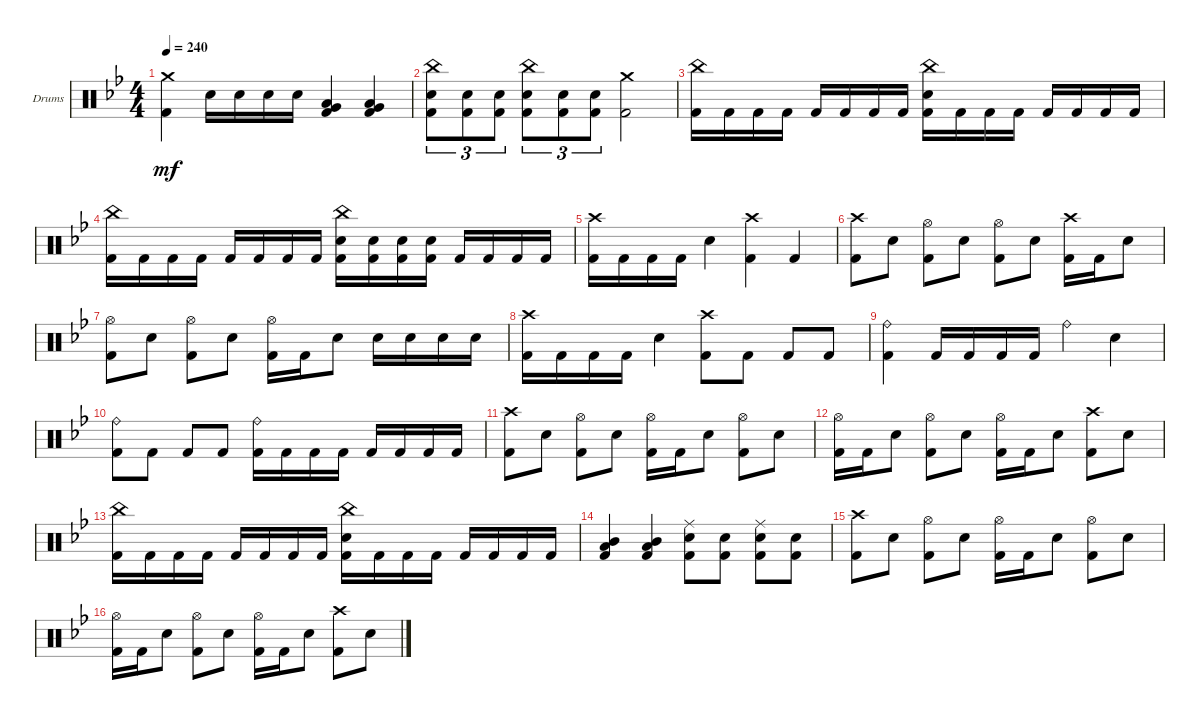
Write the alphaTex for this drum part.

\defaultSystemsLayout 4
\bracketExtendMode groupsimilarinstruments
\firstSystemTrackNameOrientation horizontal
\otherSystemsTrackNameOrientation horizontal
\track ("Drumkit" "Drums") {instrument percussion}
\staff {score}
\articulation defaults
\ts (4 4)
\tempo 240
\clef neutral
\scale
0.333333
\ks bb
("Crash medium (hit)"{acc forcenatural} "Kick (hit) 2"{acc forcenatural}).4{dy mf} "Snare (hit) 2"{acc forcenatural}.16 "Snare (hit) 2"{acc forcenatural}.16 "Snare (hit) 2"{acc forcenatural}.16 "Snare (hit) 2"{acc forcenatural}.16 ("Low Tom (hit)"{acc forcenatural} "Very Low Tom (hit)"{acc forcenatural} "Kick (hit) 2"{acc forcenatural}).4 ("Low Tom (hit)"{acc forcenatural} "Very Low Tom (hit)"{acc forcenatural} "Kick (hit) 2"{acc forcenatural}).4 |
\scale
0.333333 ("Snare (hit) 2"{acc forcenatural} "China (hit)"{acc forcenatural} "Kick (hit) 2"{acc forcenatural}).8{tu (3 2)} ("Snare (hit) 2"{acc forcenatural} "Kick (hit) 2"{acc forcenatural}).8{tu (3 2)} ("Snare (hit) 2"{acc forcenatural} "Kick (hit) 2"{acc forcenatural}).8{tu (3 2)} ("Snare (hit) 2"{acc forcenatural} "China (hit)"{acc forcenatural} "Kick (hit) 2"{acc forcenatural}).8{tu (3 2)} ("Snare (hit) 2"{acc forcenatural} "Kick (hit) 2"{acc forcenatural}).8{tu (3 2)} ("Snare (hit) 2"{acc forcenatural} "Kick (hit) 2"{acc forcenatural}).8{tu (3 2)} ("Crash medium (hit)"{acc forcenatural} "Kick (hit) 2"{acc forcenatural}).2 |
\scale
0.333333 ("Kick (hit) 2"{acc forcenatural} "China (hit)"{acc forcenatural}).16 "Kick (hit) 2"{acc forcenatural}.16 "Kick (hit) 2"{acc forcenatural}.16 "Kick (hit) 2"{acc forcenatural}.16 "Kick (hit) 2"{acc forcenatural}.16 "Kick (hit) 2"{acc forcenatural}.16 "Kick (hit) 2"{acc forcenatural}.16 "Kick (hit) 2"{acc forcenatural}.16 ("Kick (hit) 2"{acc forcenatural} "Snare (hit) 2"{acc forcenatural} "China (hit)"{acc forcenatural}).16 "Kick (hit) 2"{acc forcenatural}.16 "Kick (hit) 2"{acc forcenatural}.16 "Kick (hit) 2"{acc forcenatural}.16 "Kick (hit) 2"{acc forcenatural}.16 "Kick (hit) 2"{acc forcenatural}.16 "Kick (hit) 2"{acc forcenatural}.16 "Kick (hit) 2"{acc forcenatural}.16 |
\scale
0.333333 ("Kick (hit) 2"{acc forcenatural} "China (hit)"{acc forcenatural}).16 "Kick (hit) 2"{acc forcenatural}.16 "Kick (hit) 2"{acc forcenatural}.16 "Kick (hit) 2"{acc forcenatural}.16 "Kick (hit) 2"{acc forcenatural}.16 "Kick (hit) 2"{acc forcenatural}.16 "Kick (hit) 2"{acc forcenatural}.16 "Kick (hit) 2"{acc forcenatural}.16 ("Kick (hit) 2"{acc forcenatural} "Snare (hit) 2"{acc forcenatural} "China (hit)"{acc forcenatural}).16 ("Kick (hit) 2"{acc forcenatural} "Snare (hit) 2"{acc forcenatural}).16 ("Kick (hit) 2"{acc forcenatural} "Snare (hit) 2"{acc forcenatural}).16 ("Kick (hit) 2"{acc forcenatural} "Snare (hit) 2"{acc forcenatural}).16 "Kick (hit) 2"{acc forcenatural}.16 "Kick (hit) 2"{acc forcenatural}.16 "Kick (hit) 2"{acc forcenatural}.16 "Kick (hit) 2"{acc forcenatural}.16 |
\scale
0.333333 ("Kick (hit) 2"{acc forcenatural} "Crash high (hit)"{acc forcenatural}).16 "Kick (hit) 2"{acc forcenatural}.16 "Kick (hit) 2"{acc forcenatural}.16 "Kick (hit) 2"{acc forcenatural}.16 "Snare (hit) 2"{acc forcenatural}.4 ("Kick (hit) 2"{acc forcenatural} "Crash high (hit)"{acc forcenatural}).4 "Kick (hit) 2"{acc forcenatural}.4 |
\scale
0.333333 ("Crash high (hit)"{acc forcenatural} "Kick (hit) 2"{acc forcenatural}).8 "Snare (hit) 2"{acc forcenatural}.8 ("Kick (hit) 2"{acc forcenatural} "Hi-Hat (open)"{acc forcenatural}).8 "Snare (hit) 2"{acc forcenatural}.8 ("Kick (hit) 2"{acc forcenatural} "Hi-Hat (open)"{acc forcenatural}).8 "Snare (hit) 2"{acc forcenatural}.8 ("Kick (hit) 2"{acc forcenatural} "Crash high (hit)"{acc forcenatural}).16 "Kick (hit) 2"{acc forcenatural}.16 "Snare (hit) 2"{acc forcenatural}.8 |
\scale
0.333333 ("Kick (hit) 2"{acc forcenatural} "Hi-Hat (open)"{acc forcenatural}).8 "Snare (hit) 2"{acc forcenatural}.8 ("Kick (hit) 2"{acc forcenatural} "Hi-Hat (open)"{acc forcenatural}).8 "Snare (hit) 2"{acc forcenatural}.8 ("Kick (hit) 2"{acc forcenatural} "Hi-Hat (open)"{acc forcenatural}).16 "Kick (hit) 2"{acc forcenatural}.16 "Snare (hit) 2"{acc forcenatural}.8 "Snare (hit) 2"{acc forcenatural}.16 "Snare (hit) 2"{acc forcenatural}.16 "Snare (hit) 2"{acc forcenatural}.16 "Snare (hit) 2"{acc forcenatural}.16 |
\scale
0.333333 ("Kick (hit) 2"{acc forcenatural} "Crash high (hit)"{acc forcenatural}).16 "Kick (hit) 2"{acc forcenatural}.16 "Kick (hit) 2"{acc forcenatural}.16 "Kick (hit) 2"{acc forcenatural}.16 "Snare (hit) 2"{acc forcenatural}.4 ("Kick (hit) 2"{acc forcenatural} "Crash high (hit)"{acc forcenatural}).8 "Kick (hit) 2"{acc forcenatural}.8 "Kick (hit) 2"{acc forcenatural}.8 "Kick (hit) 2"{acc forcenatural}.8 |
\scale
0.333333 ("Ride (bell)"{acc forcenatural} "Kick (hit) 2"{acc forcenatural}).4 "Kick (hit) 2"{acc forcenatural}.16 "Kick (hit) 2"{acc forcenatural}.16 "Kick (hit) 2"{acc forcenatural}.16 "Kick (hit) 2"{acc forcenatural}.16 "Ride (bell)"{acc forcenatural}.4 "Snare (hit) 2"{acc forcenatural}.4 |
\scale
0.333333 ("Kick (hit) 2"{acc forcenatural} "Ride (bell)"{acc forcenatural}).8 "Kick (hit) 2"{acc forcenatural}.8 "Kick (hit) 2"{acc forcenatural}.8 "Kick (hit) 2"{acc forcenatural}.8 ("Kick (hit) 2"{acc forcenatural} "Ride (bell)"{acc forcenatural}).16 "Kick (hit) 2"{acc forcenatural}.16 "Kick (hit) 2"{acc forcenatural}.16 "Kick (hit) 2"{acc forcenatural}.16 "Kick (hit) 2"{acc forcenatural}.16 "Kick (hit) 2"{acc forcenatural}.16 "Kick (hit) 2"{acc forcenatural}.16 "Kick (hit) 2"{acc forcenatural}.16 |
\scale
0.333333 ("Crash high (hit)"{acc forcenatural} "Kick (hit) 2"{acc forcenatural}).8 "Snare (hit) 2"{acc forcenatural}.8 ("Kick (hit) 2"{acc forcenatural} "Hi-Hat (open)"{acc forcenatural}).8 "Snare (hit) 2"{acc forcenatural}.8 ("Kick (hit) 2"{acc forcenatural} "Hi-Hat (open)"{acc forcenatural}).16 "Kick (hit) 2"{acc forcenatural}.16 "Snare (hit) 2"{acc forcenatural}.8 ("Kick (hit) 2"{acc forcenatural} "Hi-Hat (open)"{acc forcenatural}).8 "Snare (hit) 2"{acc forcenatural}.8 |
\scale
0.333333 ("Kick (hit) 2"{acc forcenatural} "Hi-Hat (open)"{acc forcenatural}).16 "Kick (hit) 2"{acc forcenatural}.16 "Snare (hit) 2"{acc forcenatural}.8 ("Kick (hit) 2"{acc forcenatural} "Hi-Hat (open)"{acc forcenatural}).8 "Snare (hit) 2"{acc forcenatural}.8 ("Kick (hit) 2"{acc forcenatural} "Hi-Hat (open)"{acc forcenatural}).16 "Kick (hit) 2"{acc forcenatural}.16 "Snare (hit) 2"{acc forcenatural}.8 ("Kick (hit) 2"{acc forcenatural} "Crash high (hit)"{acc forcenatural}).8 "Snare (hit) 2"{acc forcenatural}.8 |
\scale
0.333333 ("Kick (hit) 2"{acc forcenatural} "China (hit)"{acc forcenatural}).16 "Kick (hit) 2"{acc forcenatural}.16 "Kick (hit) 2"{acc forcenatural}.16 "Kick (hit) 2"{acc forcenatural}.16 "Kick (hit) 2"{acc forcenatural}.16 "Kick (hit) 2"{acc forcenatural}.16 "Kick (hit) 2"{acc forcenatural}.16 "Kick (hit) 2"{acc forcenatural}.16 ("Kick (hit) 2"{acc forcenatural} "Snare (hit) 2"{acc forcenatural} "China (hit)"{acc forcenatural}).16 "Kick (hit) 2"{acc forcenatural}.16 "Kick (hit) 2"{acc forcenatural}.16 "Kick (hit) 2"{acc forcenatural}.16 "Kick (hit) 2"{acc forcenatural}.16 "Kick (hit) 2"{acc forcenatural}.16 "Kick (hit) 2"{acc forcenatural}.16 "Kick (hit) 2"{acc forcenatural}.16 |
\scale
0.333333 ("Mid Tom (hit)"{acc forcenatural} "Low Tom (hit)"{acc forcenatural} "Kick (hit) 2"{acc forcenatural}).4 ("Mid Tom (hit)"{acc forcenatural} "Low Tom (hit)"{acc forcenatural} "Kick (hit) 2"{acc forcenatural}).4 ("Snare (hit) 2"{acc forcenatural} "Kick (hit) 2"{acc forcenatural} "Ride (middle)"{acc forcenatural}).8 ("Snare (hit) 2"{acc forcenatural} "Kick (hit) 2"{acc forcenatural}).8 ("Snare (hit) 2"{acc forcenatural} "Kick (hit) 2"{acc forcenatural} "Ride (middle)"{acc forcenatural}).8 ("Snare (hit) 2"{acc forcenatural} "Kick (hit) 2"{acc forcenatural}).8 |
\scale
0.333333 ("Crash high (hit)"{acc forcenatural} "Kick (hit) 2"{acc forcenatural}).8 "Snare (hit) 2"{acc forcenatural}.8 ("Kick (hit) 2"{acc forcenatural} "Hi-Hat (open)"{acc forcenatural}).8 "Snare (hit) 2"{acc forcenatural}.8 ("Kick (hit) 2"{acc forcenatural} "Hi-Hat (open)"{acc forcenatural}).16 "Kick (hit) 2"{acc forcenatural}.16 "Snare (hit) 2"{acc forcenatural}.8 ("Kick (hit) 2"{acc forcenatural} "Hi-Hat (open)"{acc forcenatural}).8 "Snare (hit) 2"{acc forcenatural}.8 |
\scale
0.333333 ("Kick (hit) 2"{acc forcenatural} "Hi-Hat (open)"{acc forcenatural}).16 "Kick (hit) 2"{acc forcenatural}.16 "Snare (hit) 2"{acc forcenatural}.8 ("Kick (hit) 2"{acc forcenatural} "Hi-Hat (open)"{acc forcenatural}).8 "Snare (hit) 2"{acc forcenatural}.8 ("Kick (hit) 2"{acc forcenatural} "Hi-Hat (open)"{acc forcenatural}).16 "Kick (hit) 2"{acc forcenatural}.16 "Snare (hit) 2"{acc forcenatural}.8 ("Kick (hit) 2"{acc forcenatural} "Crash high (hit)"{acc forcenatural}).8 "Snare (hit) 2"{acc forcenatural}.8
